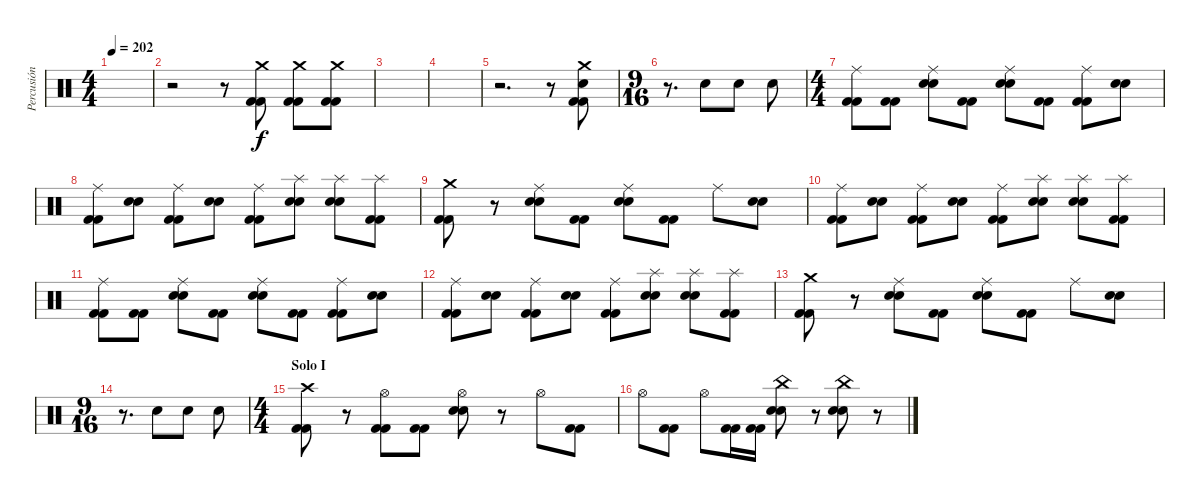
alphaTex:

\track ("Percusión" "Percusión") {instrument percussion}
\staff {score}
\articulation defaults
\ts (4 4)
\tempo 202
\clef neutral
\ks c
|
r.2 r.8 ("Crash medium (hit)" "Kick (hit) 2" "Kick (hit) 2").8 ("Crash medium (hit)" "Kick (hit) 2" "Kick (hit) 2").8 ("Crash medium (hit)" "Kick (hit) 2" "Kick (hit) 2").8 |
|
|
r.2{d} r.8 ("Crash medium (hit)" "Snare (hit) 2" "Kick (hit) 2" "Kick (hit) 2").8 |
\ts (9 16)
r.8{d} "Snare (hit) 2".8 "Snare (hit) 2".8 "Snare (hit) 2".8 |
\ts (4 4)
("Ride (middle)" "Kick (hit) 2" "Kick (hit) 2").8 ("Kick (hit) 2" "Kick (hit) 2").8 ("Ride (middle)" "Snare (hit) 2" "Snare (hit) 2").8 ("Kick (hit) 2" "Kick (hit) 2").8 ("Ride (middle)" "Snare (hit) 2" "Snare (hit) 2").8 ("Kick (hit) 2" "Kick (hit) 2").8 ("Ride (middle)" "Kick (hit) 2" "Kick (hit) 2").8 ("Snare (hit) 2" "Snare (hit) 2").8 |
("Ride (middle)" "Kick (hit) 2" "Kick (hit) 2").8 ("Snare (hit) 2" "Snare (hit) 2").8 ("Ride (middle)" "Kick (hit) 2" "Kick (hit) 2").8 ("Snare (hit) 2" "Snare (hit) 2").8 ("Ride (middle)" "Kick (hit) 2" "Kick (hit) 2").8 ("Splash (hit)" "Snare (hit) 2" "Snare (hit) 2").8 ("Splash (hit)" "Snare (hit) 2" "Snare (hit) 2").8 ("Splash (hit)" "Kick (hit) 2" "Kick (hit) 2").8 |
("Crash medium (hit)" "Kick (hit) 2" "Kick (hit) 2").8 r.8 ("Ride (middle)" "Snare (hit) 2" "Snare (hit) 2").8 ("Kick (hit) 2" "Kick (hit) 2").8 ("Ride (middle)" "Snare (hit) 2" "Snare (hit) 2").8 ("Kick (hit) 2" "Kick (hit) 2").8 "Ride (middle)".8 ("Snare (hit) 2" "Snare (hit) 2").8 |
("Ride (middle)" "Kick (hit) 2" "Kick (hit) 2").8 ("Snare (hit) 2" "Snare (hit) 2").8 ("Ride (middle)" "Kick (hit) 2" "Kick (hit) 2").8 ("Snare (hit) 2" "Snare (hit) 2").8 ("Ride (middle)" "Kick (hit) 2" "Kick (hit) 2").8 ("Splash (hit)" "Snare (hit) 2" "Snare (hit) 2").8 ("Splash (hit)" "Snare (hit) 2" "Snare (hit) 2").8 ("Splash (hit)" "Kick (hit) 2" "Kick (hit) 2").8 |
("Ride (middle)" "Kick (hit) 2" "Kick (hit) 2").8 ("Kick (hit) 2" "Kick (hit) 2").8 ("Ride (middle)" "Snare (hit) 2" "Snare (hit) 2").8 ("Kick (hit) 2" "Kick (hit) 2").8 ("Ride (middle)" "Snare (hit) 2" "Snare (hit) 2").8 ("Kick (hit) 2" "Kick (hit) 2").8 ("Ride (middle)" "Kick (hit) 2" "Kick (hit) 2").8 ("Snare (hit) 2" "Snare (hit) 2").8 |
("Ride (middle)" "Kick (hit) 2" "Kick (hit) 2").8 ("Snare (hit) 2" "Snare (hit) 2").8 ("Ride (middle)" "Kick (hit) 2" "Kick (hit) 2").8 ("Snare (hit) 2" "Snare (hit) 2").8 ("Ride (middle)" "Kick (hit) 2" "Kick (hit) 2").8 ("Splash (hit)" "Snare (hit) 2" "Snare (hit) 2").8 ("Splash (hit)" "Snare (hit) 2" "Snare (hit) 2").8 ("Splash (hit)" "Kick (hit) 2" "Kick (hit) 2").8 |
("Crash medium (hit)" "Kick (hit) 2" "Kick (hit) 2").8 r.8 ("Ride (middle)" "Snare (hit) 2" "Snare (hit) 2").8 ("Kick (hit) 2" "Kick (hit) 2").8 ("Ride (middle)" "Snare (hit) 2" "Snare (hit) 2").8 ("Kick (hit) 2" "Kick (hit) 2").8 "Ride (middle)".8 ("Snare (hit) 2" "Snare (hit) 2").8 |
\ts (9 16)
r.8{d} "Snare (hit) 2".8 "Snare (hit) 2".8 "Snare (hit) 2".8 |
\ts (4 4)
\section ("" "Solo I")
("Crash high (hit)" "Kick (hit) 2" "Kick (hit) 2").8 r.8 ("Hi-Hat (open)" "Kick (hit) 2" "Kick (hit) 2").8 ("Kick (hit) 2" "Kick (hit) 2").8 ("Hi-Hat (open)" "Snare (hit) 2" "Snare (hit) 2").8 r.8 "Hi-Hat (open)".8 ("Kick (hit) 2" "Kick (hit) 2").8 |
"Hi-Hat (open)".8 ("Kick (hit) 2" "Kick (hit) 2").8 "Hi-Hat (open)".8 ("Kick (hit) 2" "Kick (hit) 2").16 ("Kick (hit) 2" "Kick (hit) 2").16 ("China (hit)" "Snare (hit) 2" "Snare (hit) 2").8 r.8 ("China (hit)" "Snare (hit) 2" "Snare (hit) 2").8 r.8
